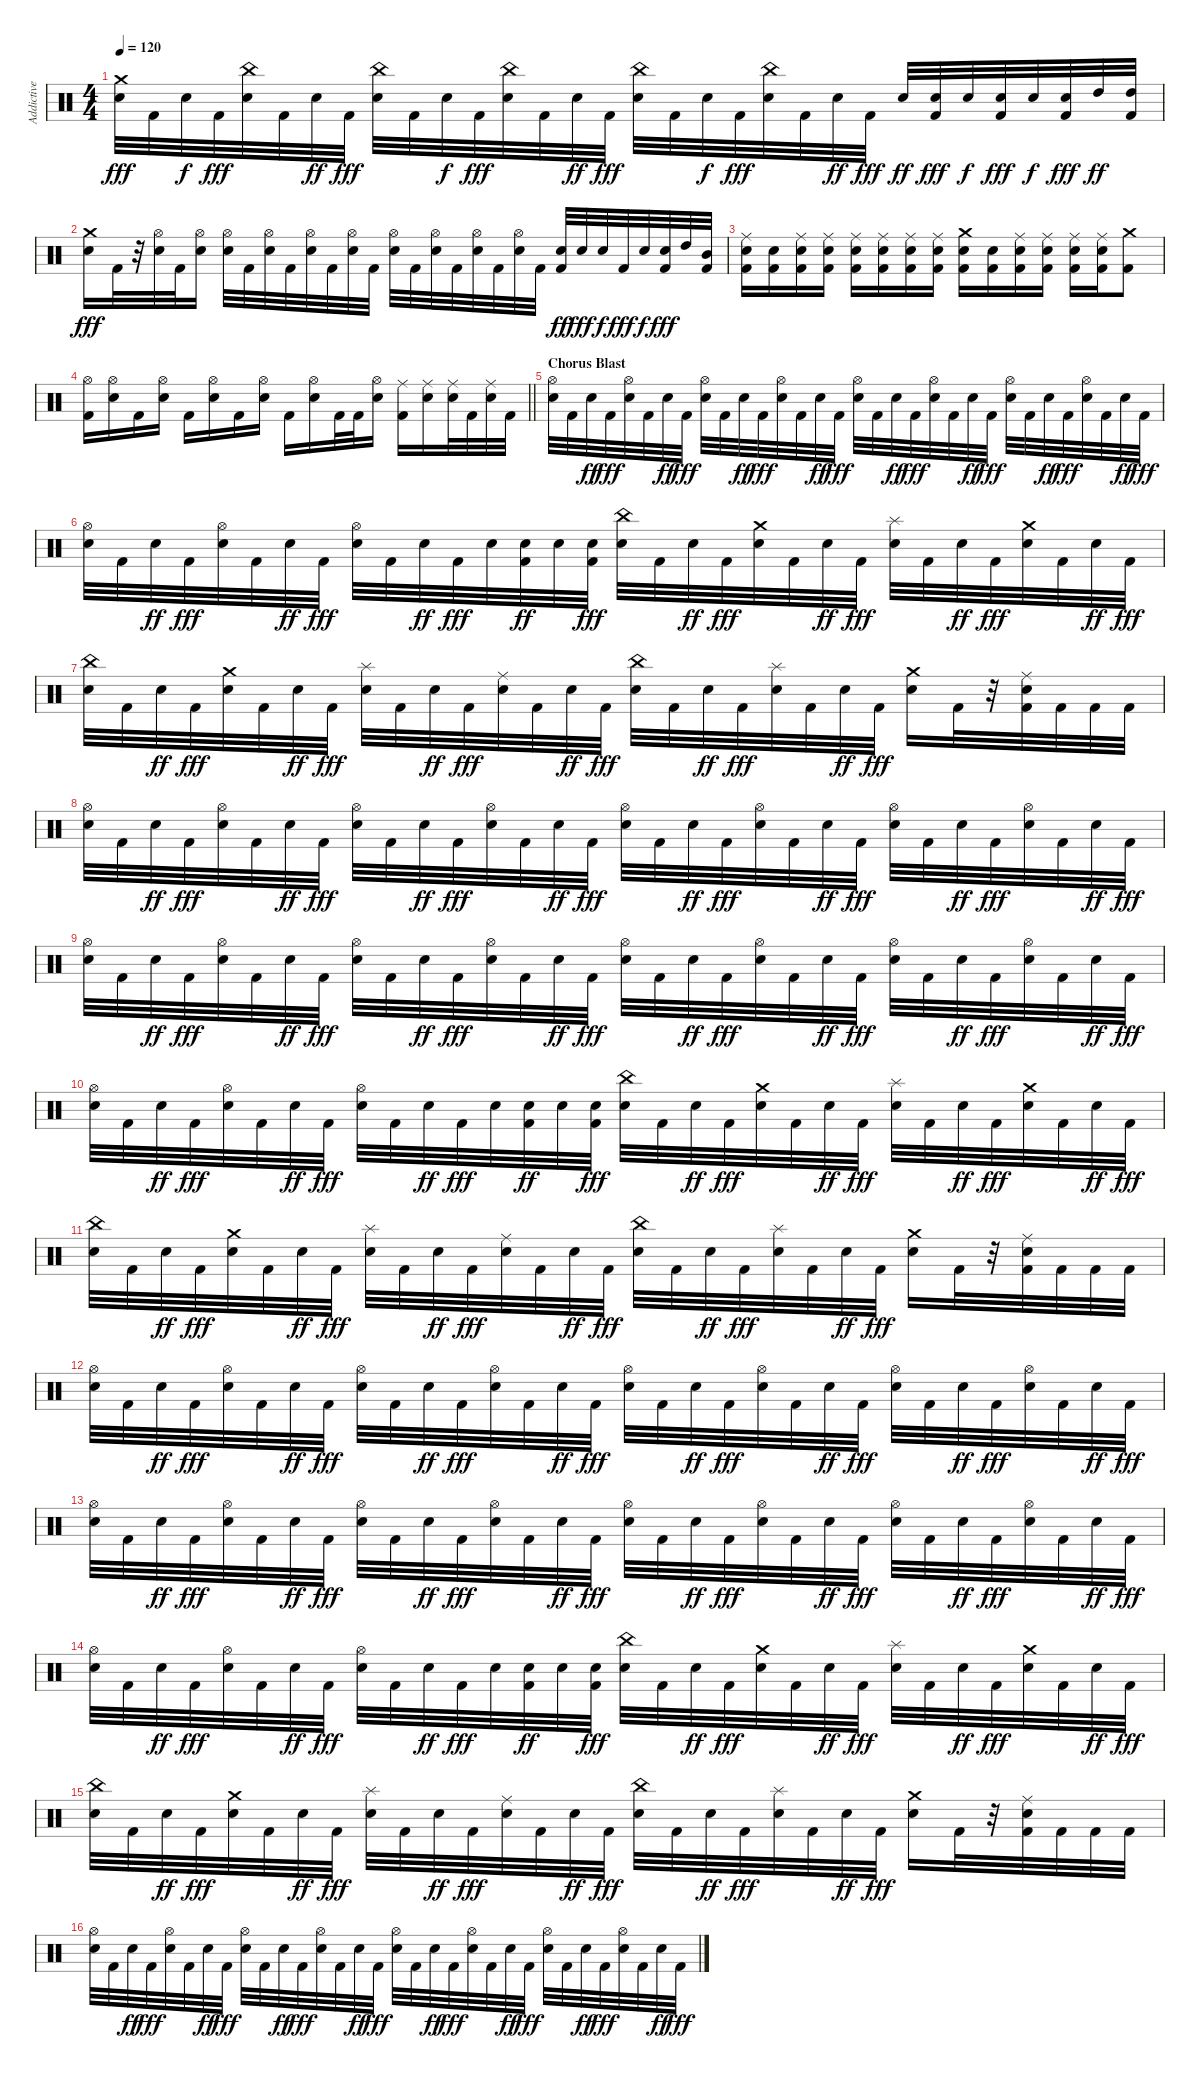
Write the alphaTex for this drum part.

\track ("Addictive Drums 07" "Addictive ") {instrument percussion}
\staff {score}
\articulation defaults
\ts (4 4)
\tempo 120
\clef neutral
\ks c
("Snare (hit) 2" "Crash medium (hit)").32{dy fff} "Kick (hit) 2".32 "Snare (hit) 2".32{dy f} "Kick (hit) 2".32{dy fff} ("Snare (hit) 2" "China (hit)").32 "Kick (hit) 2".32 "Snare (hit) 2".32{dy ff} "Kick (hit) 2".32{dy fff} ("Snare (hit) 2" "China (hit)").32 "Kick (hit) 2".32 "Snare (hit) 2".32{dy f} "Kick (hit) 2".32{dy fff} ("Snare (hit) 2" "China (hit)").32 "Kick (hit) 2".32 "Snare (hit) 2".32{dy ff} "Kick (hit) 2".32{dy fff} ("Snare (hit) 2" "China (hit)").32 "Kick (hit) 2".32 "Snare (hit) 2".32{dy f} "Kick (hit) 2".32{dy fff} ("Snare (hit) 2" "China (hit)").32 "Kick (hit) 2".32 "Snare (hit) 2".32{dy ff} "Kick (hit) 2".32{dy fff} "Snare (hit) 2".32{dy ff} ("Kick (hit) 2" "Snare (hit) 2").32{dy fff} "Snare (hit) 2".32{dy f} ("Kick (hit) 2" "Snare (hit) 2").32{dy fff} "Snare (hit) 2".32{dy f} ("Kick (hit) 2" "Snare (hit) 2").32{dy fff} "High Tom (hit)".32{dy ff} ("Kick (hit) 2" "High Tom (hit)").32 |
("Snare (hit) 2" "Crash medium (hit)").16{dy fff} "Kick (hit) 2".32 r.32 ("Snare (hit) 2" "Hi-Hat (open)").32 "Kick (hit) 2".32 ("Snare (hit) 2" "Hi-Hat (open)").16 ("Snare (hit) 2" "Hi-Hat (open)").32 "Kick (hit) 2".32 ("Snare (hit) 2" "Hi-Hat (open)").32 "Kick (hit) 2".32 ("Snare (hit) 2" "Hi-Hat (open)").32 "Kick (hit) 2".32 ("Snare (hit) 2" "Hi-Hat (open)").32 "Kick (hit) 2".32 ("Snare (hit) 2" "Hi-Hat (open)").32 "Kick (hit) 2".32 ("Snare (hit) 2" "Hi-Hat (open)").32 "Kick (hit) 2".32 ("Snare (hit) 2" "Hi-Hat (open)").32 "Kick (hit) 2".32 ("Snare (hit) 2" "Hi-Hat (open)").32 "Kick (hit) 2".32 ("Kick (hit) 2" "Snare (hit) 2").32{dy ff} "Snare (hit) 2".32{dy fff} "Snare (hit) 2".32{dy f} "Kick (hit) 2".32{dy fff} "Snare (hit) 2".32{dy f} ("Kick (hit) 2" "Snare (hit) 2").32{dy fff} "High Tom (hit)".32 ("Kick (hit) 2" "Mid Tom (hit)").32 |
("Kick (hit) 2" "Snare (hit) 2" "Ride (middle)").16 ("Kick (hit) 2" "Snare (hit) 2").16 ("Kick (hit) 2" "Snare (hit) 2" "Ride (middle)").16 ("Kick (hit) 2" "Snare (hit) 2" "Ride (middle)").16 ("Kick (hit) 2" "Snare (hit) 2" "Ride (middle)").16 ("Kick (hit) 2" "Snare (hit) 2" "Ride (middle)").16 ("Kick (hit) 2" "Snare (hit) 2" "Ride (middle)").16 ("Kick (hit) 2" "Snare (hit) 2" "Ride (middle)").16 ("Kick (hit) 2" "Snare (hit) 2" "Crash medium (hit)").16 ("Kick (hit) 2" "Snare (hit) 2").16 ("Kick (hit) 2" "Snare (hit) 2" "Ride (middle)").16 ("Kick (hit) 2" "Snare (hit) 2" "Ride (middle)").16 ("Kick (hit) 2" "Snare (hit) 2" "Ride (middle)").16 ("Kick (hit) 2" "Snare (hit) 2" "Ride (middle)").16 ("Kick (hit) 2" "Crash medium (hit)").8 |
\barLineRight lightlight
("Kick (hit) 2" "Hi-Hat (open)").16 ("Snare (hit) 2" "Hi-Hat (open)").16 "Kick (hit) 2".16 ("Snare (hit) 2" "Hi-Hat (open)").16 "Kick (hit) 2".16 ("Snare (hit) 2" "Hi-Hat (open)").16 "Kick (hit) 2".16 ("Snare (hit) 2" "Hi-Hat (open)").16 "Kick (hit) 2".16 ("Snare (hit) 2" "Hi-Hat (open)").16 "Kick (hit) 2".32 "Kick (hit) 2".32 ("Snare (hit) 2" "Hi-Hat (open)").16 ("Kick (hit) 2" "Ride (middle)").16 ("Snare (hit) 2" "Ride (middle)").16 ("Snare (hit) 2" "Ride (middle)").32 "Kick (hit) 2".32 ("Snare (hit) 2" "Ride (middle)").32 "Kick (hit) 2".32 |
\section ("" "Chorus Blast")
("Snare (hit) 2" "Hi-Hat (open)").32 "Kick (hit) 2".32 "Snare (hit) 2".32{dy ff} "Kick (hit) 2".32{dy fff} ("Snare (hit) 2" "Hi-Hat (open)").32 "Kick (hit) 2".32 "Snare (hit) 2".32{dy ff} "Kick (hit) 2".32{dy fff} ("Snare (hit) 2" "Hi-Hat (open)").32 "Kick (hit) 2".32 "Snare (hit) 2".32{dy ff} "Kick (hit) 2".32{dy fff} ("Snare (hit) 2" "Hi-Hat (open)").32 "Kick (hit) 2".32 "Snare (hit) 2".32{dy ff} "Kick (hit) 2".32{dy fff} ("Snare (hit) 2" "Hi-Hat (open)").32 "Kick (hit) 2".32 "Snare (hit) 2".32{dy ff} "Kick (hit) 2".32{dy fff} ("Snare (hit) 2" "Hi-Hat (open)").32 "Kick (hit) 2".32 "Snare (hit) 2".32{dy ff} "Kick (hit) 2".32{dy fff} ("Snare (hit) 2" "Hi-Hat (open)").32 "Kick (hit) 2".32 "Snare (hit) 2".32{dy ff} "Kick (hit) 2".32{dy fff} ("Snare (hit) 2" "Hi-Hat (open)").32 "Kick (hit) 2".32 "Snare (hit) 2".32{dy ff} "Kick (hit) 2".32{dy fff} |
("Snare (hit) 2" "Hi-Hat (open)").32 "Kick (hit) 2".32 "Snare (hit) 2".32{dy ff} "Kick (hit) 2".32{dy fff} ("Snare (hit) 2" "Hi-Hat (open)").32 "Kick (hit) 2".32 "Snare (hit) 2".32{dy ff} "Kick (hit) 2".32{dy fff} ("Snare (hit) 2" "Hi-Hat (open)").32 "Kick (hit) 2".32 "Snare (hit) 2".32{dy ff} "Kick (hit) 2".32{dy fff} "Snare (hit) 2".32 ("Kick (hit) 2" "Snare (hit) 2").32{dy ff} "Snare (hit) 2".32 ("Kick (hit) 2" "Snare (hit) 2").32{dy fff} ("Snare (hit) 2" "China (hit)").32 "Kick (hit) 2".32 "Snare (hit) 2".32{dy ff} "Kick (hit) 2".32{dy fff} ("Snare (hit) 2" "Crash medium (hit)").32 "Kick (hit) 2".32 "Snare (hit) 2".32{dy ff} "Kick (hit) 2".32{dy fff} ("Snare (hit) 2" "Splash (hit)").32 "Kick (hit) 2".32 "Snare (hit) 2".32{dy ff} "Kick (hit) 2".32{dy fff} ("Snare (hit) 2" "Crash medium (hit)").32 "Kick (hit) 2".32 "Snare (hit) 2".32{dy ff} "Kick (hit) 2".32{dy fff} |
("Snare (hit) 2" "China (hit)").32 "Kick (hit) 2".32 "Snare (hit) 2".32{dy ff} "Kick (hit) 2".32{dy fff} ("Snare (hit) 2" "Crash medium (hit)").32 "Kick (hit) 2".32 "Snare (hit) 2".32{dy ff} "Kick (hit) 2".32{dy fff} ("Snare (hit) 2" "Splash (hit)").32 "Kick (hit) 2".32 "Snare (hit) 2".32{dy ff} "Kick (hit) 2".32{dy fff} ("Snare (hit) 2" "Ride (middle)").32 "Kick (hit) 2".32 "Snare (hit) 2".32{dy ff} "Kick (hit) 2".32{dy fff} ("Snare (hit) 2" "China (hit)").32 "Kick (hit) 2".32 "Snare (hit) 2".32{dy ff} "Kick (hit) 2".32{dy fff} ("Snare (hit) 2" "Splash (hit)").32 "Kick (hit) 2".32 "Snare (hit) 2".32{dy ff} "Kick (hit) 2".32{dy fff} ("Snare (hit) 2" "Crash medium (hit)").16 "Kick (hit) 2".32 r.32 ("Kick (hit) 2" "Snare (hit) 2" "Ride (middle)").32 "Kick (hit) 2".32 "Kick (hit) 2".32 "Kick (hit) 2".32 |
("Snare (hit) 2" "Hi-Hat (open)").32 "Kick (hit) 2".32 "Snare (hit) 2".32{dy ff} "Kick (hit) 2".32{dy fff} ("Snare (hit) 2" "Hi-Hat (open)").32 "Kick (hit) 2".32 "Snare (hit) 2".32{dy ff} "Kick (hit) 2".32{dy fff} ("Snare (hit) 2" "Hi-Hat (open)").32 "Kick (hit) 2".32 "Snare (hit) 2".32{dy ff} "Kick (hit) 2".32{dy fff} ("Snare (hit) 2" "Hi-Hat (open)").32 "Kick (hit) 2".32 "Snare (hit) 2".32{dy ff} "Kick (hit) 2".32{dy fff} ("Snare (hit) 2" "Hi-Hat (open)").32 "Kick (hit) 2".32 "Snare (hit) 2".32{dy ff} "Kick (hit) 2".32{dy fff} ("Snare (hit) 2" "Hi-Hat (open)").32 "Kick (hit) 2".32 "Snare (hit) 2".32{dy ff} "Kick (hit) 2".32{dy fff} ("Snare (hit) 2" "Hi-Hat (open)").32 "Kick (hit) 2".32 "Snare (hit) 2".32{dy ff} "Kick (hit) 2".32{dy fff} ("Snare (hit) 2" "Hi-Hat (open)").32 "Kick (hit) 2".32 "Snare (hit) 2".32{dy ff} "Kick (hit) 2".32{dy fff} |
("Snare (hit) 2" "Hi-Hat (open)").32 "Kick (hit) 2".32 "Snare (hit) 2".32{dy ff} "Kick (hit) 2".32{dy fff} ("Snare (hit) 2" "Hi-Hat (open)").32 "Kick (hit) 2".32 "Snare (hit) 2".32{dy ff} "Kick (hit) 2".32{dy fff} ("Snare (hit) 2" "Hi-Hat (open)").32 "Kick (hit) 2".32 "Snare (hit) 2".32{dy ff} "Kick (hit) 2".32{dy fff} ("Snare (hit) 2" "Hi-Hat (open)").32 "Kick (hit) 2".32 "Snare (hit) 2".32{dy ff} "Kick (hit) 2".32{dy fff} ("Snare (hit) 2" "Hi-Hat (open)").32 "Kick (hit) 2".32 "Snare (hit) 2".32{dy ff} "Kick (hit) 2".32{dy fff} ("Snare (hit) 2" "Hi-Hat (open)").32 "Kick (hit) 2".32 "Snare (hit) 2".32{dy ff} "Kick (hit) 2".32{dy fff} ("Snare (hit) 2" "Hi-Hat (open)").32 "Kick (hit) 2".32 "Snare (hit) 2".32{dy ff} "Kick (hit) 2".32{dy fff} ("Snare (hit) 2" "Hi-Hat (open)").32 "Kick (hit) 2".32 "Snare (hit) 2".32{dy ff} "Kick (hit) 2".32{dy fff} |
("Snare (hit) 2" "Hi-Hat (open)").32 "Kick (hit) 2".32 "Snare (hit) 2".32{dy ff} "Kick (hit) 2".32{dy fff} ("Snare (hit) 2" "Hi-Hat (open)").32 "Kick (hit) 2".32 "Snare (hit) 2".32{dy ff} "Kick (hit) 2".32{dy fff} ("Snare (hit) 2" "Hi-Hat (open)").32 "Kick (hit) 2".32 "Snare (hit) 2".32{dy ff} "Kick (hit) 2".32{dy fff} "Snare (hit) 2".32 ("Kick (hit) 2" "Snare (hit) 2").32{dy ff} "Snare (hit) 2".32 ("Kick (hit) 2" "Snare (hit) 2").32{dy fff} ("Snare (hit) 2" "China (hit)").32 "Kick (hit) 2".32 "Snare (hit) 2".32{dy ff} "Kick (hit) 2".32{dy fff} ("Snare (hit) 2" "Crash medium (hit)").32 "Kick (hit) 2".32 "Snare (hit) 2".32{dy ff} "Kick (hit) 2".32{dy fff} ("Snare (hit) 2" "Splash (hit)").32 "Kick (hit) 2".32 "Snare (hit) 2".32{dy ff} "Kick (hit) 2".32{dy fff} ("Snare (hit) 2" "Crash medium (hit)").32 "Kick (hit) 2".32 "Snare (hit) 2".32{dy ff} "Kick (hit) 2".32{dy fff} |
("Snare (hit) 2" "China (hit)").32 "Kick (hit) 2".32 "Snare (hit) 2".32{dy ff} "Kick (hit) 2".32{dy fff} ("Snare (hit) 2" "Crash medium (hit)").32 "Kick (hit) 2".32 "Snare (hit) 2".32{dy ff} "Kick (hit) 2".32{dy fff} ("Snare (hit) 2" "Splash (hit)").32 "Kick (hit) 2".32 "Snare (hit) 2".32{dy ff} "Kick (hit) 2".32{dy fff} ("Snare (hit) 2" "Ride (middle)").32 "Kick (hit) 2".32 "Snare (hit) 2".32{dy ff} "Kick (hit) 2".32{dy fff} ("Snare (hit) 2" "China (hit)").32 "Kick (hit) 2".32 "Snare (hit) 2".32{dy ff} "Kick (hit) 2".32{dy fff} ("Snare (hit) 2" "Splash (hit)").32 "Kick (hit) 2".32 "Snare (hit) 2".32{dy ff} "Kick (hit) 2".32{dy fff} ("Snare (hit) 2" "Crash medium (hit)").16 "Kick (hit) 2".32 r.32 ("Kick (hit) 2" "Snare (hit) 2" "Ride (middle)").32 "Kick (hit) 2".32 "Kick (hit) 2".32 "Kick (hit) 2".32 |
("Snare (hit) 2" "Hi-Hat (open)").32 "Kick (hit) 2".32 "Snare (hit) 2".32{dy ff} "Kick (hit) 2".32{dy fff} ("Snare (hit) 2" "Hi-Hat (open)").32 "Kick (hit) 2".32 "Snare (hit) 2".32{dy ff} "Kick (hit) 2".32{dy fff} ("Snare (hit) 2" "Hi-Hat (open)").32 "Kick (hit) 2".32 "Snare (hit) 2".32{dy ff} "Kick (hit) 2".32{dy fff} ("Snare (hit) 2" "Hi-Hat (open)").32 "Kick (hit) 2".32 "Snare (hit) 2".32{dy ff} "Kick (hit) 2".32{dy fff} ("Snare (hit) 2" "Hi-Hat (open)").32 "Kick (hit) 2".32 "Snare (hit) 2".32{dy ff} "Kick (hit) 2".32{dy fff} ("Snare (hit) 2" "Hi-Hat (open)").32 "Kick (hit) 2".32 "Snare (hit) 2".32{dy ff} "Kick (hit) 2".32{dy fff} ("Snare (hit) 2" "Hi-Hat (open)").32 "Kick (hit) 2".32 "Snare (hit) 2".32{dy ff} "Kick (hit) 2".32{dy fff} ("Snare (hit) 2" "Hi-Hat (open)").32 "Kick (hit) 2".32 "Snare (hit) 2".32{dy ff} "Kick (hit) 2".32{dy fff} |
("Snare (hit) 2" "Hi-Hat (open)").32 "Kick (hit) 2".32 "Snare (hit) 2".32{dy ff} "Kick (hit) 2".32{dy fff} ("Snare (hit) 2" "Hi-Hat (open)").32 "Kick (hit) 2".32 "Snare (hit) 2".32{dy ff} "Kick (hit) 2".32{dy fff} ("Snare (hit) 2" "Hi-Hat (open)").32 "Kick (hit) 2".32 "Snare (hit) 2".32{dy ff} "Kick (hit) 2".32{dy fff} ("Snare (hit) 2" "Hi-Hat (open)").32 "Kick (hit) 2".32 "Snare (hit) 2".32{dy ff} "Kick (hit) 2".32{dy fff} ("Snare (hit) 2" "Hi-Hat (open)").32 "Kick (hit) 2".32 "Snare (hit) 2".32{dy ff} "Kick (hit) 2".32{dy fff} ("Snare (hit) 2" "Hi-Hat (open)").32 "Kick (hit) 2".32 "Snare (hit) 2".32{dy ff} "Kick (hit) 2".32{dy fff} ("Snare (hit) 2" "Hi-Hat (open)").32 "Kick (hit) 2".32 "Snare (hit) 2".32{dy ff} "Kick (hit) 2".32{dy fff} ("Snare (hit) 2" "Hi-Hat (open)").32 "Kick (hit) 2".32 "Snare (hit) 2".32{dy ff} "Kick (hit) 2".32{dy fff} |
("Snare (hit) 2" "Hi-Hat (open)").32 "Kick (hit) 2".32 "Snare (hit) 2".32{dy ff} "Kick (hit) 2".32{dy fff} ("Snare (hit) 2" "Hi-Hat (open)").32 "Kick (hit) 2".32 "Snare (hit) 2".32{dy ff} "Kick (hit) 2".32{dy fff} ("Snare (hit) 2" "Hi-Hat (open)").32 "Kick (hit) 2".32 "Snare (hit) 2".32{dy ff} "Kick (hit) 2".32{dy fff} "Snare (hit) 2".32 ("Kick (hit) 2" "Snare (hit) 2").32{dy ff} "Snare (hit) 2".32 ("Kick (hit) 2" "Snare (hit) 2").32{dy fff} ("Snare (hit) 2" "China (hit)").32 "Kick (hit) 2".32 "Snare (hit) 2".32{dy ff} "Kick (hit) 2".32{dy fff} ("Snare (hit) 2" "Crash medium (hit)").32 "Kick (hit) 2".32 "Snare (hit) 2".32{dy ff} "Kick (hit) 2".32{dy fff} ("Snare (hit) 2" "Splash (hit)").32 "Kick (hit) 2".32 "Snare (hit) 2".32{dy ff} "Kick (hit) 2".32{dy fff} ("Snare (hit) 2" "Crash medium (hit)").32 "Kick (hit) 2".32 "Snare (hit) 2".32{dy ff} "Kick (hit) 2".32{dy fff} |
("Snare (hit) 2" "China (hit)").32 "Kick (hit) 2".32 "Snare (hit) 2".32{dy ff} "Kick (hit) 2".32{dy fff} ("Snare (hit) 2" "Crash medium (hit)").32 "Kick (hit) 2".32 "Snare (hit) 2".32{dy ff} "Kick (hit) 2".32{dy fff} ("Snare (hit) 2" "Splash (hit)").32 "Kick (hit) 2".32 "Snare (hit) 2".32{dy ff} "Kick (hit) 2".32{dy fff} ("Snare (hit) 2" "Ride (middle)").32 "Kick (hit) 2".32 "Snare (hit) 2".32{dy ff} "Kick (hit) 2".32{dy fff} ("Snare (hit) 2" "China (hit)").32 "Kick (hit) 2".32 "Snare (hit) 2".32{dy ff} "Kick (hit) 2".32{dy fff} ("Snare (hit) 2" "Splash (hit)").32 "Kick (hit) 2".32 "Snare (hit) 2".32{dy ff} "Kick (hit) 2".32{dy fff} ("Snare (hit) 2" "Crash medium (hit)").16 "Kick (hit) 2".32 r.32 ("Kick (hit) 2" "Snare (hit) 2" "Ride (middle)").32 "Kick (hit) 2".32 "Kick (hit) 2".32 "Kick (hit) 2".32 |
("Snare (hit) 2" "Hi-Hat (open)").32 "Kick (hit) 2".32 "Snare (hit) 2".32{dy ff} "Kick (hit) 2".32{dy fff} ("Snare (hit) 2" "Hi-Hat (open)").32 "Kick (hit) 2".32 "Snare (hit) 2".32{dy ff} "Kick (hit) 2".32{dy fff} ("Snare (hit) 2" "Hi-Hat (open)").32 "Kick (hit) 2".32 "Snare (hit) 2".32{dy ff} "Kick (hit) 2".32{dy fff} ("Snare (hit) 2" "Hi-Hat (open)").32 "Kick (hit) 2".32 "Snare (hit) 2".32{dy ff} "Kick (hit) 2".32{dy fff} ("Snare (hit) 2" "Hi-Hat (open)").32 "Kick (hit) 2".32 "Snare (hit) 2".32{dy ff} "Kick (hit) 2".32{dy fff} ("Snare (hit) 2" "Hi-Hat (open)").32 "Kick (hit) 2".32 "Snare (hit) 2".32{dy ff} "Kick (hit) 2".32{dy fff} ("Snare (hit) 2" "Hi-Hat (open)").32 "Kick (hit) 2".32 "Snare (hit) 2".32{dy ff} "Kick (hit) 2".32{dy fff} ("Snare (hit) 2" "Hi-Hat (open)").32 "Kick (hit) 2".32 "Snare (hit) 2".32{dy ff} "Kick (hit) 2".32{dy fff}
